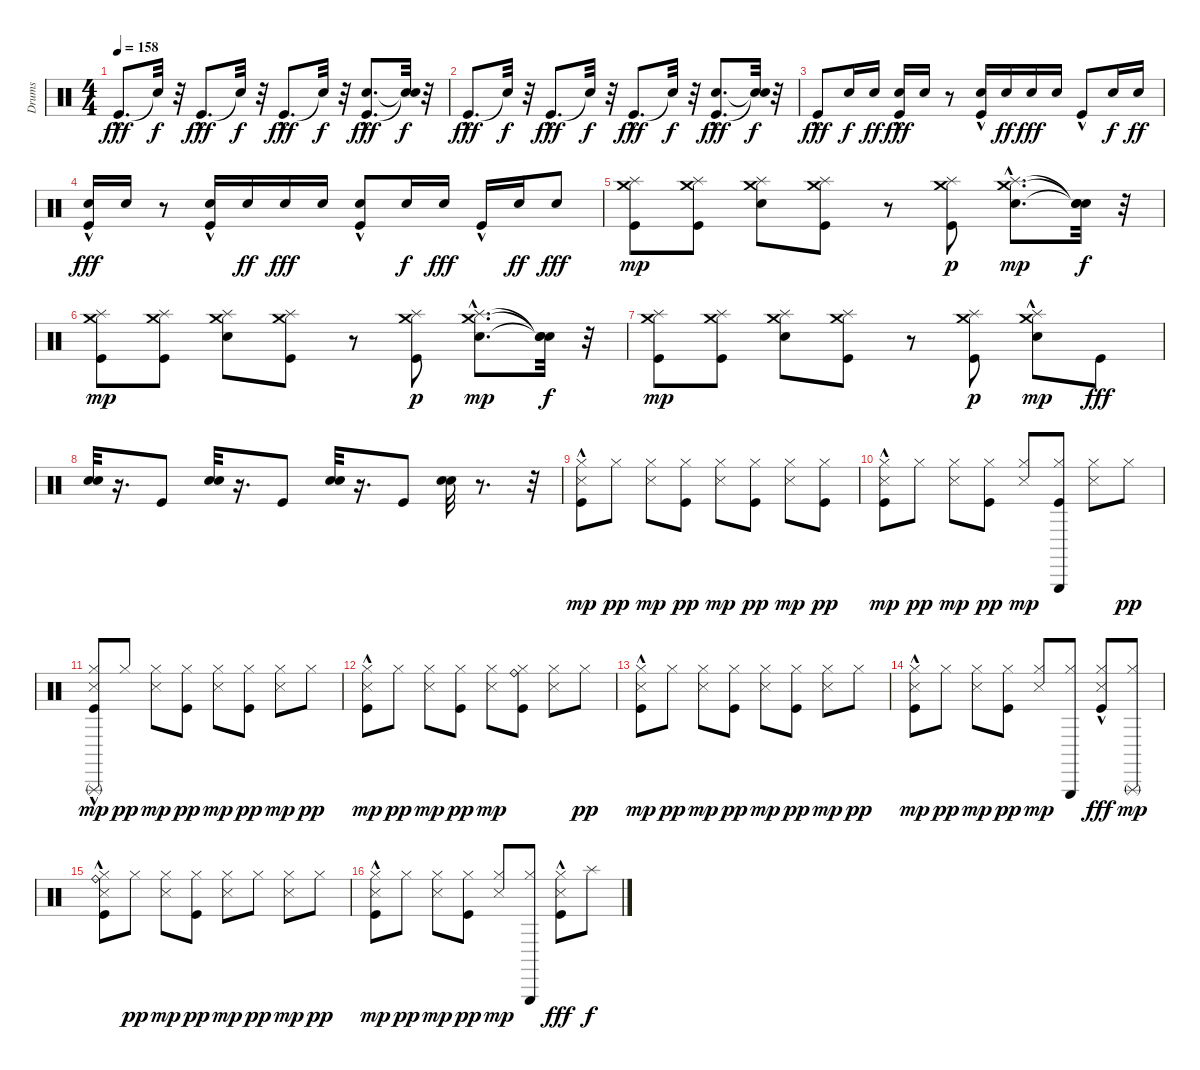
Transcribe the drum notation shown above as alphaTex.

\track ("Drums" "Drums") {instrument percussion}
\staff {score}
\articulation defaults
\ts (4 4)
\tempo 158
\clef neutral
\ks c "Kick (hit)"{hac}.8{d dy fff} "Snare (hit)"{t}.32{dy f}
r.32 "Kick (hit)"{hac}.8{d dy fff} "Snare (hit)"{t}.32{dy f} r.32 "Kick (hit)"{hac}.8{d dy fff} "Snare (hit)"{t}.32{dy f} r.32 ("Electric Snare (hit)"{hac} "Kick (hit)"{hac}).8{d dy fff} ("Snare (hit)"{t} "Snare (hit)"{t}).32{dy f} r.32 |
"Kick (hit)"{hac}.8{d dy fff} "Snare (hit)"{t}.32{dy f} r.32 "Kick (hit)"{hac}.8{d dy fff} "Snare (hit)"{t}.32{dy f} r.32 "Kick (hit)"{hac}.8{d dy fff} "Snare (hit)"{t}.32{dy f} r.32 ("Electric Snare (hit)"{hac} "Kick (hit)"{hac}).8{d dy fff} ("Snare (hit)"{t} "Snare (hit)"{t}).32{dy f} r.32 |
"Kick (hit)"{hac}.8{dy fff} "Electric Snare (hit)".16{dy f} "Electric Snare (hit)".16{dy ff} ("Electric Snare (hit)" "Kick (hit)"{hac}).16{dy fff} "Electric Snare (hit)".16 r.8 ("Electric Snare (hit)" "Kick (hit)"{hac}).16 "Electric Snare (hit)".16{dy ff} "Electric Snare (hit)".16{dy fff} "Electric Snare (hit)".16 "Kick (hit)"{hac}.8 "Electric Snare (hit)".16{dy f} "Electric Snare (hit)".16{dy ff} |
("Electric Snare (hit)" "Kick (hit)"{hac}).16{dy fff} "Electric Snare (hit)".16 r.8 ("Electric Snare (hit)" "Kick (hit)"{hac}).16 "Electric Snare (hit)".16{dy ff} "Electric Snare (hit)".16{dy fff} "Electric Snare (hit)".16 ("Electric Snare (hit)" "Kick (hit)"{hac}).8 "Electric Snare (hit)".16{dy f} "Electric Snare (hit)".16{dy fff} "Kick (hit)"{hac}.16 "Electric Snare (hit)".16{dy ff} "Electric Snare (hit)".8{dy fff} |
("Kick (hit)" "Crash medium (hit)" "Splash (hit)").8{dy mp} ("Kick (hit)" "Crash medium (hit)" "Splash (hit)").8 ("Electric Snare (hit)" "Crash medium (hit)" "Splash (hit)").8 ("Kick (hit)" "Crash medium (hit)" "Splash (hit)").8 r.8 ("Kick (hit)" "Splash (hit)" "Crash medium (hit)").8{dy p} ("Electric Snare (hit)"{hac} "Crash medium (hit)"{hac} "Splash (hit)"{hac}).8{d dy mp} ("Snare (hit)"{t} "Snare (hit)"{t} "Snare (hit)"{t}).32{dy f} r.32 |
("Kick (hit)" "Crash medium (hit)" "Splash (hit)").8{dy mp} ("Kick (hit)" "Crash medium (hit)" "Splash (hit)").8 ("Electric Snare (hit)" "Crash medium (hit)" "Splash (hit)").8 ("Kick (hit)" "Crash medium (hit)" "Splash (hit)").8 r.8 ("Kick (hit)" "Splash (hit)" "Crash medium (hit)").8{dy p} ("Electric Snare (hit)"{hac} "Crash medium (hit)"{hac} "Splash (hit)"{hac}).8{d dy mp} ("Snare (hit)"{t} "Snare (hit)"{t} "Snare (hit)"{t}).32{dy f} r.32 |
("Kick (hit)" "Crash medium (hit)" "Splash (hit)").8{dy mp} ("Kick (hit)" "Crash medium (hit)" "Splash (hit)").8 ("Electric Snare (hit)" "Crash medium (hit)" "Splash (hit)").8 ("Kick (hit)" "Crash medium (hit)" "Splash (hit)").8 r.8 ("Kick (hit)" "Splash (hit)" "Crash medium (hit)").8{dy p} ("Electric Snare (hit)"{hac} "Crash medium (hit)"{hac} "Splash (hit)"{hac}).8{dy mp} "Kick (hit)".8{dy fff} |
("Electric Snare (hit)" "Electric Snare (hit)").32 r.16{d} "Kick (hit)".8 ("Electric Snare (hit)" "Electric Snare (hit)").32 r.16{d} "Kick (hit)".8 ("Electric Snare (hit)" "Electric Snare (hit)").32 r.16{d} "Kick (hit)".8 ("Electric Snare (hit)" "Electric Snare (hit)").32 r.8{d} r.32 |
("Kick (hit)"{hac} "Snare (side stick) 3" "Hi-Hat (closed)").8{dy mp} "Hi-Hat (closed)".8{dy pp} ("Snare (side stick) 3" "Hi-Hat (closed)").8{dy mp} ("Kick (hit)" "Hi-Hat (closed)").8{dy pp} ("Snare (side stick) 3" "Hi-Hat (closed)").8{dy mp} ("Kick (hit)" "Hi-Hat (closed)").8{dy pp} ("Snare (side stick) 3" "Hi-Hat (closed)").8{dy mp} ("Kick (hit)" "Hi-Hat (closed)").8{dy pp} |
("Kick (hit)"{hac} "Snare (side stick) 3" "Hi-Hat (closed)").8{dy mp} "Hi-Hat (closed)".8{dy pp} ("Snare (side stick) 3" "Hi-Hat (closed)").8{dy mp} ("Kick (hit)" "Hi-Hat (closed)").8{dy pp} ("Snare (side stick) 3" "Hi-Hat (closed)").8{dy mp} ("Kick (hit)" "Hi-Hat (closed)" "Triangle (hit)").8 ("Snare (side stick) 3" "Hi-Hat (closed)").8 "Hi-Hat (closed)".8{dy pp} |
("Kick (hit)"{hac} "Snare (side stick) 3" "Hi-Hat (closed)" "Triangle (rnute)").8{dy mp} "Hi-Hat (closed)".8{dy pp} ("Snare (side stick) 3" "Hi-Hat (closed)").8{dy mp} ("Kick (hit)" "Hi-Hat (closed)").8{dy pp} ("Snare (side stick) 3" "Hi-Hat (closed)").8{dy mp} ("Kick (hit)" "Hi-Hat (closed)").8{dy pp} ("Snare (side stick) 3" "Hi-Hat (closed)").8{dy mp} "Hi-Hat (closed)".8{dy pp} |
("Kick (hit)"{hac} "Snare (side stick) 3" "Hi-Hat (closed)").8{dy mp} "Hi-Hat (closed)".8{dy pp} ("Snare (side stick) 3" "Hi-Hat (closed)").8{dy mp} ("Kick (hit)" "Hi-Hat (closed)").8{dy pp} ("Snare (side stick) 3" "Hi-Hat (closed)").8{dy mp} ("Kick (hit)" "Hi-Hat (closed)" "Ride (bell)").8 ("Snare (side stick) 3" "Hi-Hat (closed)").8 "Hi-Hat (closed)".8{dy pp} |
("Kick (hit)"{hac} "Snare (side stick) 3" "Hi-Hat (closed)").8{dy mp} "Hi-Hat (closed)".8{dy pp} ("Snare (side stick) 3" "Hi-Hat (closed)").8{dy mp} ("Kick (hit)" "Hi-Hat (closed)").8{dy pp} ("Snare (side stick) 3" "Hi-Hat (closed)").8{dy mp} ("Kick (hit)" "Hi-Hat (closed)").8{dy pp} ("Snare (side stick) 3" "Hi-Hat (closed)").8{dy mp} "Hi-Hat (closed)".8{dy pp} |
("Kick (hit)"{hac} "Snare (side stick) 3" "Hi-Hat (closed)").8{dy mp} "Hi-Hat (closed)".8{dy pp} ("Snare (side stick) 3" "Hi-Hat (closed)").8{dy mp} ("Kick (hit)" "Hi-Hat (closed)").8{dy pp} ("Snare (side stick) 3" "Hi-Hat (closed)").8{dy mp} ("Hi-Hat (closed)" "Triangle (hit)").8 ("Snare (side stick) 3" "Hi-Hat (closed)" "Kick (hit)"{hac}).8{dy fff} ("Hi-Hat (closed)" "Triangle (rnute)").8{dy mp} |
("Kick (hit)"{hac} "Snare (side stick) 3" "Hi-Hat (closed)" "Ride (bell)").8 "Hi-Hat (closed)".8{dy pp} ("Snare (side stick) 3" "Hi-Hat (closed)").8{dy mp} ("Kick (hit)" "Hi-Hat (closed)").8{dy pp} ("Snare (side stick) 3" "Hi-Hat (closed)").8{dy mp} "Hi-Hat (closed)".8{dy pp} ("Snare (side stick) 3" "Hi-Hat (closed)").8{dy mp} "Hi-Hat (closed)".8{dy pp} |
("Kick (hit)"{hac} "Snare (side stick) 3" "Hi-Hat (closed)").8{dy mp} "Hi-Hat (closed)".8{dy pp} ("Snare (side stick) 3" "Hi-Hat (closed)").8{dy mp} ("Kick (hit)" "Hi-Hat (closed)").8{dy pp} ("Snare (side stick) 3" "Hi-Hat (closed)").8{dy mp} ("Hi-Hat (closed)" "Triangle (hit)").8 ("Snare (side stick) 3" "Hi-Hat (closed)" "Kick (hit)"{hac}).8{dy fff} "Splash (hit)".8{dy f}
